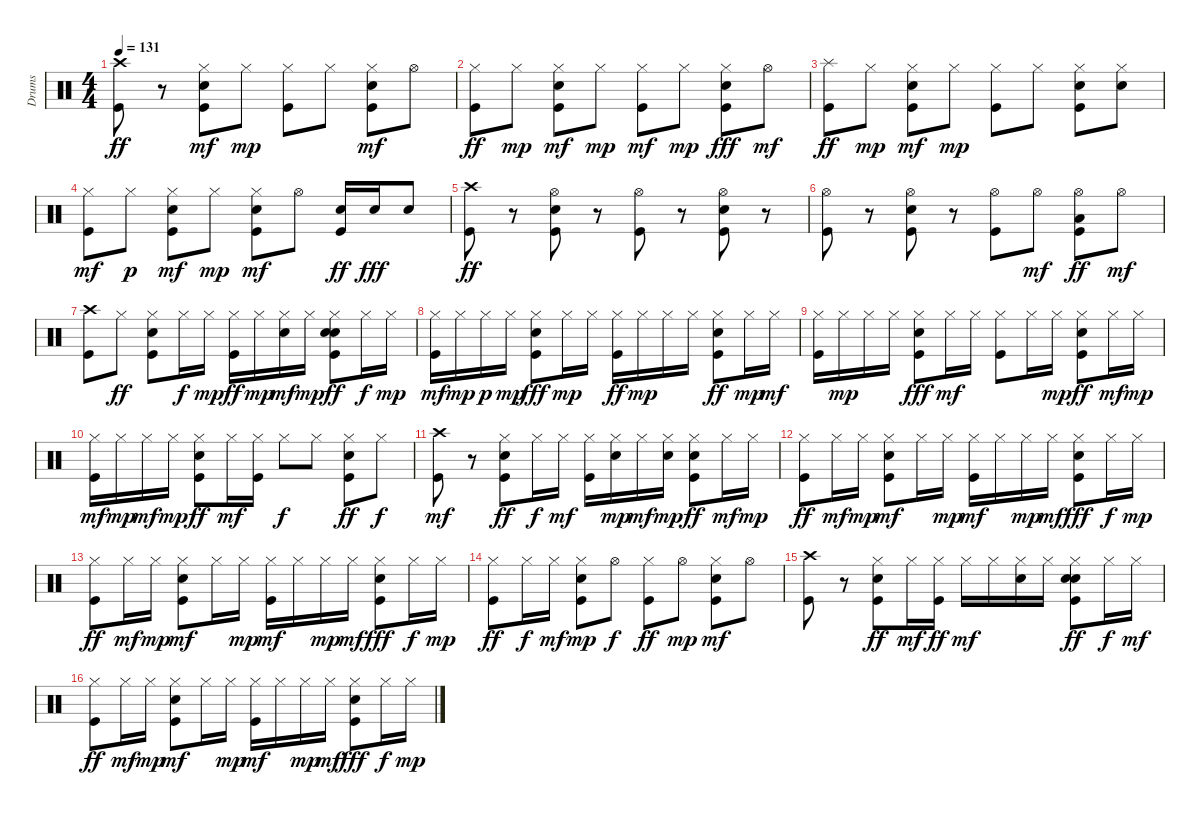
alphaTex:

\track ("Drums" "Drums") {instrument percussion}
\staff {score}
\articulation defaults
\ts (4 4)
\tempo 131
\clef neutral
\ks c
("Kick (hit)" "Crash high (hit)").8{dy ff} r.8 ("Kick (hit)" "Snare (hit) 2" "Hi-Hat (closed)").8{dy mf} "Hi-Hat (closed)".8{dy mp} ("Kick (hit)" "Hi-Hat (closed)").8 "Hi-Hat (closed)".8 ("Kick (hit)" "Snare (hit) 2" "Hi-Hat (closed)").8{dy mf} "Hi-Hat (open)".8 |
("Kick (hit)" "Hi-Hat (closed)").8{dy ff} "Hi-Hat (closed)".8{dy mp} ("Kick (hit)" "Snare (hit) 2" "Hi-Hat (closed)").8{dy mf} "Hi-Hat (closed)".8{dy mp} ("Kick (hit)" "Hi-Hat (closed)").8{dy mf} "Hi-Hat (closed)".8{dy mp} ("Kick (hit)" "Snare (hit) 2" "Hi-Hat (closed)").8{dy fff} "Hi-Hat (open)".8{dy mf} |
("Kick (hit)" "Splash (hit)").8{dy ff} "Hi-Hat (closed)".8{dy mp} ("Kick (hit)" "Snare (hit) 2" "Hi-Hat (closed)").8{dy mf} "Hi-Hat (closed)".8{dy mp} ("Kick (hit)" "Hi-Hat (closed)").8 "Hi-Hat (closed)".8 ("Kick (hit)" "Snare (hit) 2" "Hi-Hat (closed)").8 ("Snare (hit) 2" "Hi-Hat (closed)").8 |
("Kick (hit)" "Hi-Hat (closed)").8{dy mf} "Hi-Hat (closed)".8{dy p} ("Kick (hit)" "Snare (hit) 2" "Hi-Hat (closed)").8{dy mf} "Hi-Hat (closed)".8{dy mp} ("Kick (hit)" "Snare (hit) 2" "Hi-Hat (closed)").8{dy mf} "Hi-Hat (open)".8 ("Kick (hit)" "Snare (hit) 2").16{dy ff} "Snare (hit) 2".16{dy fff} "Snare (hit) 2".8 |
("Kick (hit)" "Crash high (hit)").8{dy ff} r.8 ("Kick (hit)" "Snare (hit) 2" "Hi-Hat (open)").8 r.8 ("Kick (hit)" "Hi-Hat (open)").8 r.8 ("Kick (hit)" "Snare (hit) 2" "Hi-Hat (open)").8 r.8 |
("Kick (hit)" "Hi-Hat (open)").8 r.8 ("Kick (hit)" "Snare (hit) 2" "Hi-Hat (open)").8 r.8 ("Kick (hit)" "Hi-Hat (open)").8 "Hi-Hat (open)".8{dy mf} ("Kick (hit)" "Low Tom (hit)" "Hi-Hat (open)").8{dy ff} "Hi-Hat (open)".8{dy mf} |
("Kick (hit)" "Crash high (hit)").8 "Hi-Hat (closed)".8{dy ff} ("Kick (hit)" "Snare (hit) 2" "Hi-Hat (closed)").8 "Hi-Hat (closed)".16{dy f} "Hi-Hat (closed)".16{dy mp} ("Kick (hit)" "Hi-Hat (closed)").16{dy ff} "Hi-Hat (closed)".16{dy mp} ("Hi-Hat (closed)" "Hand Clap (hit)").16{dy mf} "Hi-Hat (closed)".16{dy mp} ("Kick (hit)" "Snare (hit) 2" "Hi-Hat (closed)" "Hand Clap (hit)").8{dy ff} "Hi-Hat (closed)".16{dy f} "Hi-Hat (closed)".16{dy mp} |
("Kick (hit)" "Hi-Hat (closed)").16{dy mf} "Hi-Hat (closed)".16{dy mp} "Hi-Hat (closed)".16{dy p} "Hi-Hat (closed)".16{dy mp} ("Kick (hit)" "Snare (hit) 2" "Hi-Hat (closed)").8{dy fff} "Hi-Hat (closed)".16{dy mp} "Hi-Hat (closed)".16 ("Kick (hit)" "Hi-Hat (closed)").16{dy ff} "Hi-Hat (closed)".16{dy mp} "Hi-Hat (closed)".16 "Hi-Hat (closed)".16 ("Snare (hit) 2" "Kick (hit)" "Hi-Hat (closed)").8{dy ff} "Hi-Hat (closed)".16{dy mp} "Hi-Hat (closed)".16{dy mf} |
("Kick (hit)" "Hi-Hat (closed)").16 "Hi-Hat (closed)".16{dy mp} "Hi-Hat (closed)".16 "Hi-Hat (closed)".16 ("Kick (hit)" "Snare (hit) 2" "Hi-Hat (closed)").8{dy fff} "Hi-Hat (closed)".16{dy mf} "Hi-Hat (closed)".16 ("Kick (hit)" "Hi-Hat (closed)").8 "Hi-Hat (closed)".16 "Hi-Hat (closed)".16{dy mp} ("Kick (hit)" "Snare (hit) 2" "Hi-Hat (closed)").8{dy ff} "Hi-Hat (closed)".16{dy mf} "Hi-Hat (closed)".16{dy mp} |
("Kick (hit)" "Hi-Hat (closed)").16{dy mf} "Hi-Hat (closed)".16{dy mp} "Hi-Hat (closed)".16{dy mf} "Hi-Hat (closed)".16{dy mp} ("Kick (hit)" "Snare (hit) 2" "Hi-Hat (closed)").8{dy ff} "Hi-Hat (closed)".16{dy mf} ("Kick (hit)" "Hi-Hat (closed)").16 "Hi-Hat (closed)".8{dy f} "Hi-Hat (closed)".8 ("Kick (hit)" "Snare (hit) 2" "Hi-Hat (closed)").8{dy ff} "Hi-Hat (closed)".8{dy f} |
("Kick (hit)" "Crash high (hit)").8{dy mf} r.8 ("Kick (hit)" "Snare (hit) 2" "Hi-Hat (closed)").8{dy ff} "Hi-Hat (closed)".16{dy f} "Hi-Hat (closed)".16{dy mf} ("Kick (hit)" "Hi-Hat (closed)").16 ("Hi-Hat (closed)" "Hand Clap (hit)").16{dy mp} "Hi-Hat (closed)".16{dy mf} ("Hi-Hat (closed)" "Hand Clap (hit)").16{dy mp} ("Kick (hit)" "Snare (hit) 2" "Hi-Hat (closed)").8{dy ff} "Hi-Hat (closed)".16{dy mf} "Hi-Hat (closed)".16{dy mp} |
("Kick (hit)" "Hi-Hat (closed)").8{dy ff} "Hi-Hat (closed)".16{dy mf} "Hi-Hat (closed)".16{dy mp} ("Kick (hit)" "Snare (hit) 2" "Hi-Hat (closed)").8{dy mf} "Hi-Hat (closed)".16 "Hi-Hat (closed)".16{dy mp} ("Kick (hit)" "Hi-Hat (closed)").16{dy mf} "Hi-Hat (closed)".16 "Hi-Hat (closed)".16{dy mp} "Hi-Hat (closed)".16{dy mf} ("Kick (hit)" "Snare (hit) 2" "Hi-Hat (closed)").8{dy fff} "Hi-Hat (closed)".16{dy f} "Hi-Hat (closed)".16{dy mp} |
("Kick (hit)" "Hi-Hat (closed)").8{dy ff} "Hi-Hat (closed)".16{dy mf} "Hi-Hat (closed)".16{dy mp} ("Kick (hit)" "Snare (hit) 2" "Hi-Hat (closed)").8{dy mf} "Hi-Hat (closed)".16 "Hi-Hat (closed)".16{dy mp} ("Kick (hit)" "Hi-Hat (closed)").16{dy mf} "Hi-Hat (closed)".16 "Hi-Hat (closed)".16{dy mp} "Hi-Hat (closed)".16{dy mf} ("Kick (hit)" "Snare (hit) 2" "Hi-Hat (closed)").8{dy fff} "Hi-Hat (closed)".16{dy f} "Hi-Hat (closed)".16{dy mp} |
("Kick (hit)" "Hi-Hat (closed)").8{dy ff} "Hi-Hat (closed)".16{dy f} "Hi-Hat (closed)".16{dy mf} ("Kick (hit)" "Snare (hit) 2" "Hi-Hat (closed)").8{dy mp} "Hi-Hat (open)".8{dy f} ("Kick (hit)" "Hi-Hat (closed)").8{dy ff} "Hi-Hat (open)".8{dy mp} ("Kick (hit)" "Snare (hit) 2" "Hi-Hat (closed)").8{dy mf} "Hi-Hat (open)".8 |
("Kick (hit)" "Crash high (hit)").8 r.8 ("Kick (hit)" "Snare (hit) 2" "Hi-Hat (closed)").8{dy ff} "Hi-Hat (closed)".16{dy mf} ("Kick (hit)" "Hi-Hat (closed)").16{dy ff} "Hi-Hat (closed)".16{dy mf} "Hi-Hat (closed)".16 ("Hi-Hat (closed)" "Hand Clap (hit)").16 "Hi-Hat (closed)".16 ("Kick (hit)" "Snare (hit) 2" "Hi-Hat (closed)" "Hand Clap (hit)").8{dy ff} "Hi-Hat (closed)".16{dy f} "Hi-Hat (closed)".16{dy mf} |
("Kick (hit)" "Hi-Hat (closed)").8{dy ff} "Hi-Hat (closed)".16{dy mf} "Hi-Hat (closed)".16{dy mp} ("Kick (hit)" "Snare (hit) 2" "Hi-Hat (closed)").8{dy mf} "Hi-Hat (closed)".16 "Hi-Hat (closed)".16{dy mp} ("Kick (hit)" "Hi-Hat (closed)").16{dy mf} "Hi-Hat (closed)".16 "Hi-Hat (closed)".16{dy mp} "Hi-Hat (closed)".16{dy mf} ("Kick (hit)" "Snare (hit) 2" "Hi-Hat (closed)").8{dy fff} "Hi-Hat (closed)".16{dy f} "Hi-Hat (closed)".16{dy mp}
